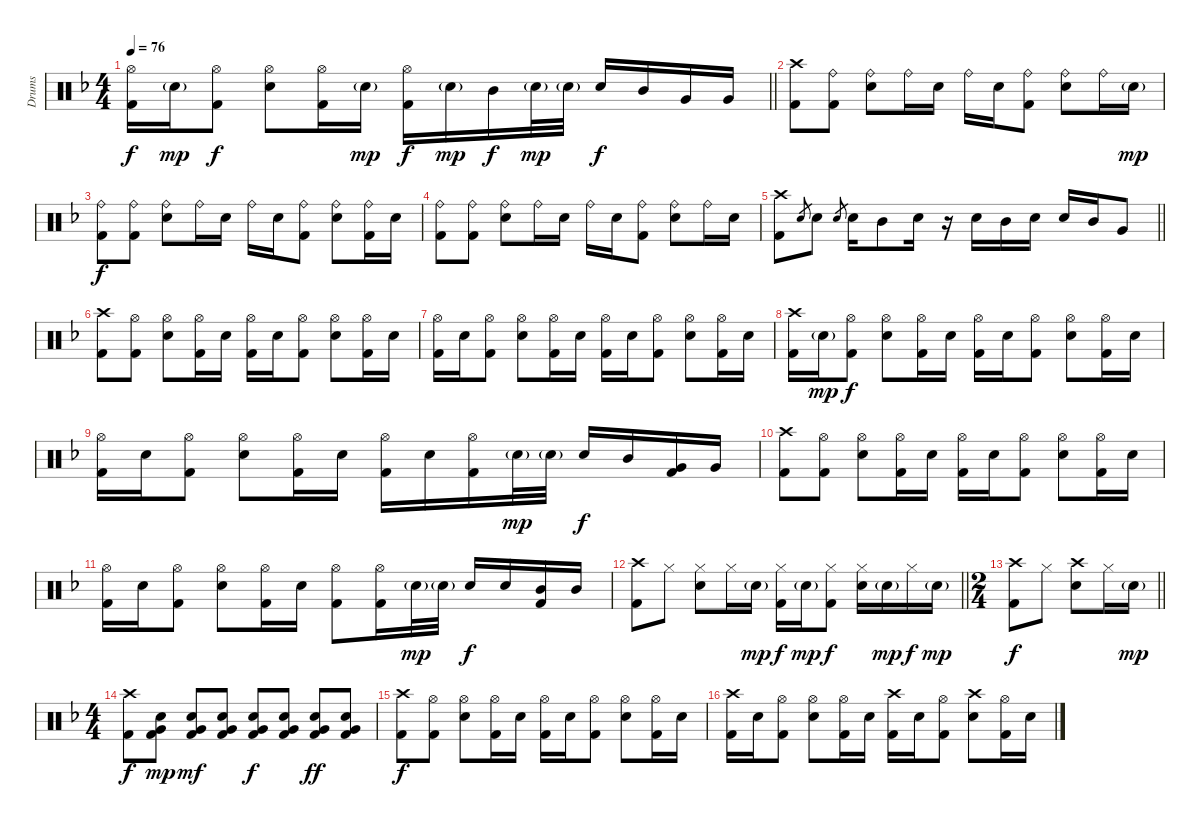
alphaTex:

\track ("Drums" "Drums") {instrument percussion}
\staff {score}
\articulation defaults
\ts (4 4)
\tempo 76
\clef neutral
\barLineRight lightlight
\ks f
("Hi-Hat (open)" "Kick (hit) 2").16{dy f} "Electric Snare (hit)"{g}.16{dy mp} ("Hi-Hat (open)" "Kick (hit) 2").8{dy f} ("Hi-Hat (open)" "Electric Snare (hit)").8 ("Hi-Hat (open)" "Kick (hit) 2").16 "Electric Snare (hit)"{g}.16{dy mp} ("Hi-Hat (open)" "Kick (hit) 2").16{dy f} "Electric Snare (hit)"{g}.16{dy mp} "Mid Tom (hit)".16{dy f} "Electric Snare (hit)"{g}.32{dy mp} "Electric Snare (hit)"{g}.32 "Electric Snare (hit)".16{dy f} "Mid Tom (hit)".16 "Very Low Tom (hit)".16 "Very Low Tom (hit)".16 |
("Crash high (hit)" "Kick (hit) 2").8 ("Ride (bell)" "Kick (hit) 2").8 ("Ride (bell)" "Electric Snare (hit)").8 "Ride (bell)".16 "Electric Snare (hit)".16 "Ride (bell)".16 "Electric Snare (hit)".16 ("Ride (bell)" "Kick (hit) 2").8 ("Ride (bell)" "Electric Snare (hit)").8 "Ride (bell)".16 "Electric Snare (hit)"{g}.16{dy mp} |
("Ride (bell)" "Kick (hit) 2").8{dy f} ("Ride (bell)" "Kick (hit) 2").8 ("Ride (bell)" "Electric Snare (hit)").8 "Ride (bell)".16 "Electric Snare (hit)".16 "Ride (bell)".16 "Electric Snare (hit)".16 ("Ride (bell)" "Kick (hit) 2").8 ("Ride (bell)" "Electric Snare (hit)").8 ("Ride (bell)" "Kick (hit) 2").16 "Electric Snare (hit)".16 |
("Ride (bell)" "Kick (hit) 2").8 ("Ride (bell)" "Kick (hit) 2").8 ("Ride (bell)" "Electric Snare (hit)").8 "Ride (bell)".16 "Electric Snare (hit)".16 "Ride (bell)".16 "Electric Snare (hit)".16 ("Ride (bell)" "Kick (hit) 2").8 ("Ride (bell)" "Electric Snare (hit)").8 "Ride (bell)".16 "Electric Snare (hit)".16 |
\barLineRight lightlight
("Crash high (hit)" "Kick (hit) 2").8 "Electric Snare (hit)".8{gr} "Electric Snare (hit)".8 "Electric Snare (hit)".8{gr} "Electric Snare (hit)".16 "Mid Tom (hit)".8 "Electric Snare (hit)".16 r.16 "Electric Snare (hit)".16 "Mid Tom (hit)".16 "Electric Snare (hit)".16 "Electric Snare (hit)".16 "Mid Tom (hit)".16 "Very Low Tom (hit)".8 |
("Crash high (hit)" "Kick (hit) 2").8 ("Hi-Hat (open)" "Kick (hit) 2").8 ("Hi-Hat (open)" "Electric Snare (hit)").8 ("Hi-Hat (open)" "Kick (hit) 2").16 "Electric Snare (hit)".16 ("Hi-Hat (open)" "Kick (hit) 2").16 "Electric Snare (hit)".16 ("Hi-Hat (open)" "Kick (hit) 2").8 ("Hi-Hat (open)" "Electric Snare (hit)").8 ("Hi-Hat (open)" "Kick (hit) 2").16 "Electric Snare (hit)".16 |
("Hi-Hat (open)" "Kick (hit) 2").16 "Electric Snare (hit)".16 ("Hi-Hat (open)" "Kick (hit) 2").8 ("Hi-Hat (open)" "Electric Snare (hit)").8 ("Hi-Hat (open)" "Kick (hit) 2").16 "Electric Snare (hit)".16 ("Hi-Hat (open)" "Kick (hit) 2").16 "Electric Snare (hit)".16 ("Hi-Hat (open)" "Kick (hit) 2").8 ("Hi-Hat (open)" "Electric Snare (hit)").8 ("Hi-Hat (open)" "Kick (hit) 2").16 "Electric Snare (hit)".16 |
("Crash high (hit)" "Kick (hit) 2").16 "Electric Snare (hit)"{g}.16{dy mp} ("Hi-Hat (open)" "Kick (hit) 2").8{dy f} ("Hi-Hat (open)" "Electric Snare (hit)").8 ("Hi-Hat (open)" "Kick (hit) 2").16 "Electric Snare (hit)".16 ("Hi-Hat (open)" "Kick (hit) 2").16 "Electric Snare (hit)".16 ("Hi-Hat (open)" "Kick (hit) 2").8 ("Hi-Hat (open)" "Electric Snare (hit)").8 ("Hi-Hat (open)" "Kick (hit) 2").16 "Electric Snare (hit)".16 |
("Hi-Hat (open)" "Kick (hit) 2").16 "Electric Snare (hit)".16 ("Hi-Hat (open)" "Kick (hit) 2").8 ("Hi-Hat (open)" "Electric Snare (hit)").8 ("Hi-Hat (open)" "Kick (hit) 2").16 "Electric Snare (hit)".16 ("Hi-Hat (open)" "Kick (hit) 2").16 "Electric Snare (hit)".16 ("Hi-Hat (open)" "Kick (hit) 2").16 "Electric Snare (hit)"{g}.32{dy mp} "Electric Snare (hit)"{g}.32 "Electric Snare (hit)".16{dy f} "Mid Tom (hit)".16 ("Very Low Tom (hit)" "Kick (hit) 2").16 "Very Low Tom (hit)".16 |
("Crash high (hit)" "Kick (hit) 2").8 ("Hi-Hat (open)" "Kick (hit) 2").8 ("Hi-Hat (open)" "Electric Snare (hit)").8 ("Hi-Hat (open)" "Kick (hit) 2").16 "Electric Snare (hit)".16 ("Hi-Hat (open)" "Kick (hit) 2").16 "Electric Snare (hit)".16 ("Hi-Hat (open)" "Kick (hit) 2").8 ("Hi-Hat (open)" "Electric Snare (hit)").8 ("Hi-Hat (open)" "Kick (hit) 2").16 "Electric Snare (hit)".16 |
("Hi-Hat (open)" "Kick (hit) 2").16 "Electric Snare (hit)".16 ("Hi-Hat (open)" "Kick (hit) 2").8 ("Hi-Hat (open)" "Electric Snare (hit)").8 ("Hi-Hat (open)" "Kick (hit) 2").16 "Electric Snare (hit)".16 ("Hi-Hat (open)" "Kick (hit) 2").8 ("Hi-Hat (open)" "Kick (hit) 2").16 "Electric Snare (hit)"{g}.32{dy mp} "Electric Snare (hit)"{g}.32 "Electric Snare (hit)".16{dy f} "Electric Snare (hit)".16 ("Mid Tom (hit)" "Kick (hit) 2").16 "Mid Tom (hit)".16 |
\barLineRight lightlight
("Crash high (hit)" "Kick (hit) 2").8 "Hi-Hat (closed)".8 ("Hi-Hat (closed)" "Electric Snare (hit)").8 "Hi-Hat (closed)".16 "Electric Snare (hit)"{g}.16{dy mp} ("Hi-Hat (closed)" "Kick (hit) 2").16{dy f} "Electric Snare (hit)"{g}.16{dy mp} ("Hi-Hat (closed)" "Kick (hit) 2").8{dy f} ("Hi-Hat (closed)" "Electric Snare (hit)").16 "Electric Snare (hit)"{g}.16{dy mp} "Hi-Hat (closed)".16{dy f} "Electric Snare (hit)"{g}.16{dy mp} |
\ts (2 4)
\barLineRight lightlight
("Crash high (hit)" "Kick (hit) 2").8{dy f} "Hi-Hat (closed)".8 ("Crash high (hit)" "Electric Snare (hit)").8 "Hi-Hat (closed)".16 "Electric Snare (hit)"{g}.16{dy mp} |
\ts (4 4)
("Crash high (hit)" "Kick (hit) 2").8{dy f} ("Electric Snare (hit)" "Very Low Tom (hit)" "Kick (hit) 2").8{dy mp} ("Electric Snare (hit)" "Very Low Tom (hit)" "Kick (hit) 2").8{dy mf} ("Electric Snare (hit)" "Very Low Tom (hit)" "Kick (hit) 2").8 ("Electric Snare (hit)" "Very Low Tom (hit)" "Kick (hit) 2").8{dy f} ("Electric Snare (hit)" "Very Low Tom (hit)" "Kick (hit) 2").8 ("Electric Snare (hit)" "Very Low Tom (hit)" "Kick (hit) 2").8{dy ff} ("Electric Snare (hit)" "Very Low Tom (hit)" "Kick (hit) 2").8 |
("Crash high (hit)" "Kick (hit) 2").8{dy f} ("Hi-Hat (open)" "Kick (hit) 2").8 ("Hi-Hat (open)" "Electric Snare (hit)").8 ("Hi-Hat (open)" "Kick (hit) 2").16 "Electric Snare (hit)".16 ("Hi-Hat (open)" "Kick (hit) 2").16 "Electric Snare (hit)".16 ("Hi-Hat (open)" "Kick (hit) 2").8 ("Hi-Hat (open)" "Electric Snare (hit)").8 ("Hi-Hat (open)" "Kick (hit) 2").16 "Electric Snare (hit)".16 |
("Crash high (hit)" "Kick (hit) 2").16 "Electric Snare (hit)".16 ("Hi-Hat (open)" "Kick (hit) 2").8 ("Hi-Hat (open)" "Electric Snare (hit)").8 ("Hi-Hat (open)" "Kick (hit) 2").16 "Electric Snare (hit)".16 ("Crash high (hit)" "Kick (hit) 2").16 "Electric Snare (hit)".16 ("Hi-Hat (open)" "Kick (hit) 2").8 ("Crash high (hit)" "Electric Snare (hit)").8 ("Hi-Hat (open)" "Kick (hit) 2").16 "Electric Snare (hit)".16
